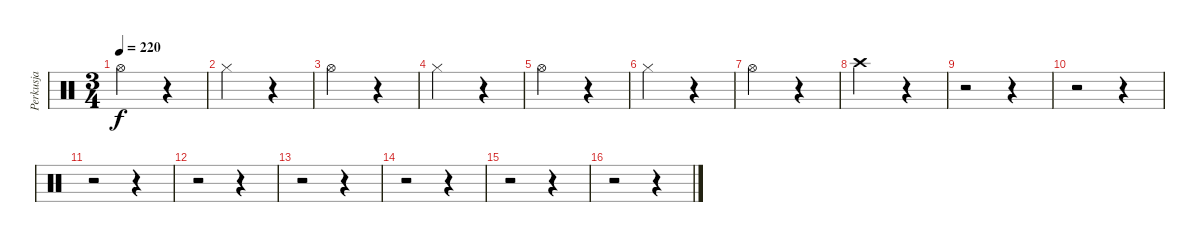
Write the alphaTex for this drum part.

\track ("Perkusja" "Perkusja") {instrument percussion}
\staff {score}
\articulation defaults
\ts (3 4)
\tempo 220
\clef neutral
\ks c "Hi-Hat (open)".2{dy f}
r.4 |
"Hi-Hat (closed)".2 r.4 |
"Hi-Hat (open)".2 r.4 |
"Hi-Hat (closed)".2 r.4 |
"Hi-Hat (open)".2 r.4 |
"Hi-Hat (closed)".2 r.4 |
"Hi-Hat (open)".2 r.4 |
"Crash high (hit)".2 r.4 |
r.2 r.4 |
r.2 r.4 |
r.2 r.4 |
r.2 r.4 |
r.2 r.4 |
r.2 r.4 |
r.2 r.4 |
r.2 r.4
